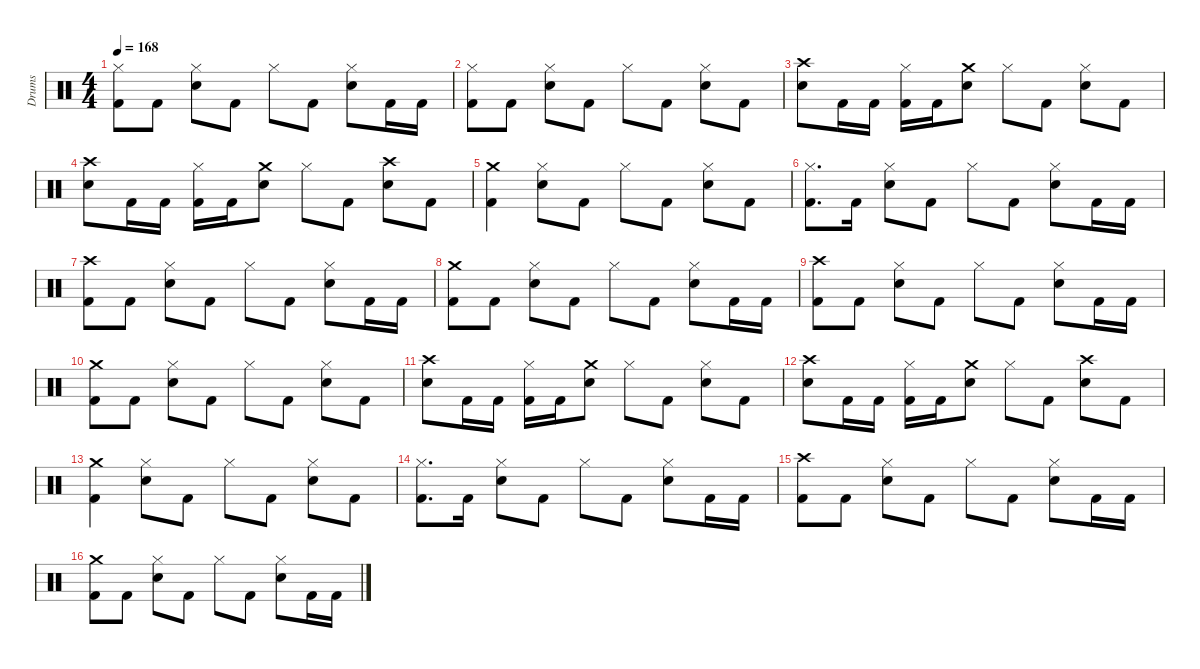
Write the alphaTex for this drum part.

\defaultSystemsLayout 4
\hideDynamics
\bracketExtendMode nobrackets
\firstSystemTrackNameMode fullname
\otherSystemsTrackNameOrientation horizontal
\track ("Drums" "drm.") {instrument percussion}
\staff {score}
\articulation defaults
\ts (4 4)
\tempo 168
\clef neutral
\ks c
("Hi-Hat (closed)" "Kick (hit) 2").8{dy f beam Down} "Kick (hit) 2".8{beam Down} ("Hi-Hat (closed)" "Snare (hit) 2").8{beam Down} "Kick (hit) 2".8{beam Down} "Hi-Hat (closed)".8{beam Down} "Kick (hit) 2".8{beam Down} ("Hi-Hat (closed)" "Snare (hit) 2").8{beam Down} "Kick (hit) 2".16{beam Down} "Kick (hit) 2".16{beam Down} |
("Hi-Hat (closed)" "Kick (hit) 2").8{beam Down} "Kick (hit) 2".8{beam Down} ("Hi-Hat (closed)" "Snare (hit) 2").8{beam Down} "Kick (hit) 2".8{beam Down} "Hi-Hat (closed)".8{beam Down} "Kick (hit) 2".8{beam Down} ("Hi-Hat (closed)" "Snare (hit) 2").8{beam Down} "Kick (hit) 2".8{beam Down} |
("Crash high (hit)" "Snare (hit) 2").8{beam Down} "Kick (hit) 2".16{beam Down} "Kick (hit) 2".16{beam Down} ("Hi-Hat (closed)" "Kick (hit) 2").16{beam Down} "Kick (hit) 2".16{beam Down} ("Crash medium (hit)" "Snare (hit) 2").8{beam Down} "Hi-Hat (closed)".8{beam Down} "Kick (hit) 2".8{beam Down} ("Hi-Hat (closed)" "Snare (hit) 2").8{beam Down} "Kick (hit) 2".8{beam Down} |
("Crash high (hit)" "Snare (hit) 2").8{beam Down} "Kick (hit) 2".16{beam Down} "Kick (hit) 2".16{beam Down} ("Hi-Hat (closed)" "Kick (hit) 2").16{beam Down} "Kick (hit) 2".16{beam Down} ("Crash medium (hit)" "Snare (hit) 2").8{beam Down} "Hi-Hat (closed)".8{beam Down} "Kick (hit) 2".8{beam Down} ("Crash high (hit)" "Snare (hit) 2").8{beam Down} "Kick (hit) 2".8{beam Down} |
("Crash medium (hit)" "Kick (hit) 2").4{beam Down} ("Hi-Hat (closed)" "Snare (hit) 2").8{beam Down} "Kick (hit) 2".8{beam Down} "Hi-Hat (closed)".8{beam Down} "Kick (hit) 2".8{beam Down} ("Hi-Hat (closed)" "Snare (hit) 2").8{beam Down} "Kick (hit) 2".8{beam Down} |
("Hi-Hat (closed)" "Kick (hit) 2").8{d beam Down} "Kick (hit) 2".16{beam Down} ("Hi-Hat (closed)" "Snare (hit) 2").8{beam Down} "Kick (hit) 2".8{beam Down} "Hi-Hat (closed)".8{beam Down} "Kick (hit) 2".8{beam Down} ("Hi-Hat (closed)" "Snare (hit) 2").8{beam Down} "Kick (hit) 2".16{beam Down} "Kick (hit) 2".16{beam Down} |
("Crash high (hit)" "Kick (hit) 2").8{beam Down} "Kick (hit) 2".8{beam Down} ("Hi-Hat (closed)" "Snare (hit) 2").8{beam Down} "Kick (hit) 2".8{beam Down} "Hi-Hat (closed)".8{beam Down} "Kick (hit) 2".8{beam Down} ("Hi-Hat (closed)" "Snare (hit) 2").8{beam Down} "Kick (hit) 2".16{beam Down} "Kick (hit) 2".16{beam Down} |
("Crash medium (hit)" "Kick (hit) 2").8{beam Down} "Kick (hit) 2".8{beam Down} ("Hi-Hat (closed)" "Snare (hit) 2").8{beam Down} "Kick (hit) 2".8{beam Down} "Hi-Hat (closed)".8{beam Down} "Kick (hit) 2".8{beam Down} ("Hi-Hat (closed)" "Snare (hit) 2").8{beam Down} "Kick (hit) 2".16{beam Down} "Kick (hit) 2".16{beam Down} |
("Crash high (hit)" "Kick (hit) 2").8{beam Down} "Kick (hit) 2".8{beam Down} ("Hi-Hat (closed)" "Snare (hit) 2").8{beam Down} "Kick (hit) 2".8{beam Down} "Hi-Hat (closed)".8{beam Down} "Kick (hit) 2".8{beam Down} ("Hi-Hat (closed)" "Snare (hit) 2").8{beam Down} "Kick (hit) 2".16{beam Down} "Kick (hit) 2".16{beam Down} |
("Crash medium (hit)" "Kick (hit) 2").8{beam Down} "Kick (hit) 2".8{beam Down} ("Hi-Hat (closed)" "Snare (hit) 2").8{beam Down} "Kick (hit) 2".8{beam Down} "Hi-Hat (closed)".8{beam Down} "Kick (hit) 2".8{beam Down} ("Hi-Hat (closed)" "Snare (hit) 2").8{beam Down} "Kick (hit) 2".8{beam Down} |
("Crash high (hit)" "Snare (hit) 2").8{beam Down} "Kick (hit) 2".16{beam Down} "Kick (hit) 2".16{beam Down} ("Hi-Hat (closed)" "Kick (hit) 2").16{beam Down} "Kick (hit) 2".16{beam Down} ("Crash medium (hit)" "Snare (hit) 2").8{beam Down} "Hi-Hat (closed)".8{beam Down} "Kick (hit) 2".8{beam Down} ("Hi-Hat (closed)" "Snare (hit) 2").8{beam Down} "Kick (hit) 2".8{beam Down} |
("Crash high (hit)" "Snare (hit) 2").8{beam Down} "Kick (hit) 2".16{beam Down} "Kick (hit) 2".16{beam Down} ("Hi-Hat (closed)" "Kick (hit) 2").16{beam Down} "Kick (hit) 2".16{beam Down} ("Crash medium (hit)" "Snare (hit) 2").8{beam Down} "Hi-Hat (closed)".8{beam Down} "Kick (hit) 2".8{beam Down} ("Crash high (hit)" "Snare (hit) 2").8{beam Down} "Kick (hit) 2".8{beam Down} |
("Crash medium (hit)" "Kick (hit) 2").4{beam Down} ("Hi-Hat (closed)" "Snare (hit) 2").8{beam Down} "Kick (hit) 2".8{beam Down} "Hi-Hat (closed)".8{beam Down} "Kick (hit) 2".8{beam Down} ("Hi-Hat (closed)" "Snare (hit) 2").8{beam Down} "Kick (hit) 2".8{beam Down} |
("Hi-Hat (closed)" "Kick (hit) 2").8{d beam Down} "Kick (hit) 2".16{beam Down} ("Hi-Hat (closed)" "Snare (hit) 2").8{beam Down} "Kick (hit) 2".8{beam Down} "Hi-Hat (closed)".8{beam Down} "Kick (hit) 2".8{beam Down} ("Hi-Hat (closed)" "Snare (hit) 2").8{beam Down} "Kick (hit) 2".16{beam Down} "Kick (hit) 2".16{beam Down} |
("Crash high (hit)" "Kick (hit) 2").8{beam Down} "Kick (hit) 2".8{beam Down} ("Hi-Hat (closed)" "Snare (hit) 2").8{beam Down} "Kick (hit) 2".8{beam Down} "Hi-Hat (closed)".8{beam Down} "Kick (hit) 2".8{beam Down} ("Hi-Hat (closed)" "Snare (hit) 2").8{beam Down} "Kick (hit) 2".16{beam Down} "Kick (hit) 2".16{beam Down} |
("Crash medium (hit)" "Kick (hit) 2").8{beam Down} "Kick (hit) 2".8{beam Down} ("Hi-Hat (closed)" "Snare (hit) 2").8{beam Down} "Kick (hit) 2".8{beam Down} "Hi-Hat (closed)".8{beam Down} "Kick (hit) 2".8{beam Down} ("Hi-Hat (closed)" "Snare (hit) 2").8{beam Down} "Kick (hit) 2".16{beam Down} "Kick (hit) 2".16{beam Down}
